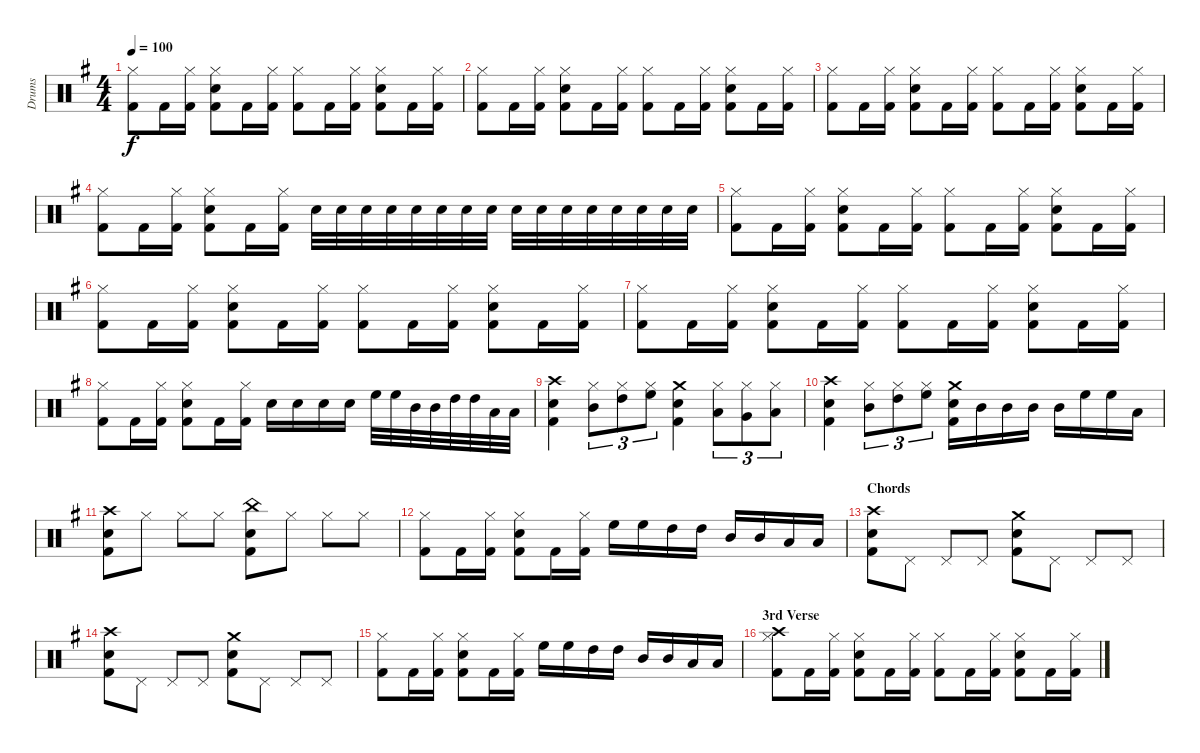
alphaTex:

\track ("Drums" "Drums") {instrument percussion}
\staff {score}
\articulation defaults
\ts (4 4)
\tempo 100
\clef neutral
\ks eminor
("Hi-Hat (closed)" "Kick (hit) 2").8{dy f} "Kick (hit) 2".16 ("Hi-Hat (closed)" "Kick (hit) 2").16 ("Hi-Hat (closed)" "Kick (hit) 2" "Snare (hit) 2").8 "Kick (hit) 2".16 ("Hi-Hat (closed)" "Kick (hit) 2").16 ("Hi-Hat (closed)" "Kick (hit) 2").8 "Kick (hit) 2".16 ("Hi-Hat (closed)" "Kick (hit) 2").16 ("Hi-Hat (closed)" "Kick (hit) 2" "Snare (hit) 2").8 "Kick (hit) 2".16 ("Hi-Hat (closed)" "Kick (hit) 2").16 |
("Hi-Hat (closed)" "Kick (hit) 2").8 "Kick (hit) 2".16 ("Hi-Hat (closed)" "Kick (hit) 2").16 ("Hi-Hat (closed)" "Kick (hit) 2" "Snare (hit) 2").8 "Kick (hit) 2".16 ("Hi-Hat (closed)" "Kick (hit) 2").16 ("Hi-Hat (closed)" "Kick (hit) 2").8 "Kick (hit) 2".16 ("Hi-Hat (closed)" "Kick (hit) 2").16 ("Hi-Hat (closed)" "Kick (hit) 2" "Snare (hit) 2").8 "Kick (hit) 2".16 ("Hi-Hat (closed)" "Kick (hit) 2").16 |
("Hi-Hat (closed)" "Kick (hit) 2").8 "Kick (hit) 2".16 ("Hi-Hat (closed)" "Kick (hit) 2").16 ("Hi-Hat (closed)" "Kick (hit) 2" "Snare (hit) 2").8 "Kick (hit) 2".16 ("Hi-Hat (closed)" "Kick (hit) 2").16 ("Hi-Hat (closed)" "Kick (hit) 2").8 "Kick (hit) 2".16 ("Hi-Hat (closed)" "Kick (hit) 2").16 ("Hi-Hat (closed)" "Kick (hit) 2" "Snare (hit) 2").8 "Kick (hit) 2".16 ("Hi-Hat (closed)" "Kick (hit) 2").16 |
("Hi-Hat (closed)" "Kick (hit) 2").8 "Kick (hit) 2".16 ("Hi-Hat (closed)" "Kick (hit) 2").16 ("Hi-Hat (closed)" "Kick (hit) 2" "Snare (hit) 2").8 "Kick (hit) 2".16 ("Hi-Hat (closed)" "Kick (hit) 2").16 "Snare (hit) 2".32 "Snare (hit) 2".32 "Snare (hit) 2".32 "Snare (hit) 2".32 "Snare (hit) 2".32 "Snare (hit) 2".32 "Snare (hit) 2".32 "Snare (hit) 2".32 "Snare (hit) 2".32 "Snare (hit) 2".32 "Snare (hit) 2".32 "Snare (hit) 2".32 "Snare (hit) 2".32 "Snare (hit) 2".32 "Snare (hit) 2".32 "Snare (hit) 2".32 |
("Hi-Hat (closed)" "Kick (hit) 2").8 "Kick (hit) 2".16 ("Hi-Hat (closed)" "Kick (hit) 2").16 ("Hi-Hat (closed)" "Kick (hit) 2" "Snare (hit) 2").8 "Kick (hit) 2".16 ("Hi-Hat (closed)" "Kick (hit) 2").16 ("Hi-Hat (closed)" "Kick (hit) 2").8 "Kick (hit) 2".16 ("Hi-Hat (closed)" "Kick (hit) 2").16 ("Hi-Hat (closed)" "Kick (hit) 2" "Snare (hit) 2").8 "Kick (hit) 2".16 ("Hi-Hat (closed)" "Kick (hit) 2").16 |
("Hi-Hat (closed)" "Kick (hit) 2").8 "Kick (hit) 2".16 ("Hi-Hat (closed)" "Kick (hit) 2").16 ("Hi-Hat (closed)" "Kick (hit) 2" "Snare (hit) 2").8 "Kick (hit) 2".16 ("Hi-Hat (closed)" "Kick (hit) 2").16 ("Hi-Hat (closed)" "Kick (hit) 2").8 "Kick (hit) 2".16 ("Hi-Hat (closed)" "Kick (hit) 2").16 ("Hi-Hat (closed)" "Kick (hit) 2" "Snare (hit) 2").8 "Kick (hit) 2".16 ("Hi-Hat (closed)" "Kick (hit) 2").16 |
("Hi-Hat (closed)" "Kick (hit) 2").8 "Kick (hit) 2".16 ("Hi-Hat (closed)" "Kick (hit) 2").16 ("Hi-Hat (closed)" "Kick (hit) 2" "Snare (hit) 2").8 "Kick (hit) 2".16 ("Hi-Hat (closed)" "Kick (hit) 2").16 ("Hi-Hat (closed)" "Kick (hit) 2").8 "Kick (hit) 2".16 ("Hi-Hat (closed)" "Kick (hit) 2").16 ("Hi-Hat (closed)" "Kick (hit) 2" "Snare (hit) 2").8 "Kick (hit) 2".16 ("Hi-Hat (closed)" "Kick (hit) 2").16 |
("Hi-Hat (closed)" "Kick (hit) 2").8 "Kick (hit) 2".16 ("Hi-Hat (closed)" "Kick (hit) 2").16 ("Hi-Hat (closed)" "Kick (hit) 2" "Snare (hit) 2").8 "Kick (hit) 2".16 ("Hi-Hat (closed)" "Kick (hit) 2").16 "Snare (hit) 2".16 "Snare (hit) 2".16 "Snare (hit) 2".16 "Snare (hit) 2".16 "High Floor Tom (hit)".32 "High Floor Tom (hit)".32 "Mid Tom (hit)".32 "Mid Tom (hit)".32 "High Tom (hit)".32 "High Tom (hit)".32 "Low Floor Tom (hit)".32 "Low Floor Tom (hit)".32 |
("Crash high (hit)" "Snare (hit) 2" "Kick (hit) 2").4 ("Hi-Hat (closed)" "Mid Tom (hit)").8{tu (3 2)} ("Hi-Hat (closed)" "High Tom (hit)").8{tu (3 2)} ("Hi-Hat (closed)" "High Floor Tom (hit)").8{tu (3 2)} ("Crash medium (hit)" "Snare (hit) 2" "Kick (hit) 2").4 ("Hi-Hat (closed)" "Low Floor Tom (hit)").8{tu (3 2)} ("Hi-Hat (closed)" "Very Low Tom (hit)").8{tu (3 2)} ("Hi-Hat (closed)" "Low Tom (hit)").8{tu (3 2)} |
("Crash high (hit)" "Snare (hit) 2" "Kick (hit) 2").4 ("Hi-Hat (closed)" "Mid Tom (hit)").8{tu (3 2)} ("Hi-Hat (closed)" "High Tom (hit)").8{tu (3 2)} ("Hi-Hat (closed)" "High Floor Tom (hit)").8{tu (3 2)} ("Crash medium (hit)" "Snare (hit) 2" "Kick (hit) 2").16 "Mid Tom (hit)".16 "Mid Tom (hit)".16 "Mid Tom (hit)".16 "Mid Tom (hit)".16 "High Floor Tom (hit)".16 "High Floor Tom (hit)".16 "Low Tom (hit)".16 |
("Crash high (hit)" "Snare (hit) 2" "Kick (hit) 2").8 "Hi-Hat (closed)".8 "Hi-Hat (closed)".8 "Hi-Hat (closed)".8 ("China (hit)" "Snare (hit) 2" "Kick (hit) 2").8 "Hi-Hat (closed)".8 "Hi-Hat (closed)".8 "Hi-Hat (closed)".8 |
("Hi-Hat (closed)" "Kick (hit) 2").8 "Kick (hit) 2".16 ("Hi-Hat (closed)" "Kick (hit) 2").16 ("Hi-Hat (closed)" "Kick (hit) 2" "Snare (hit) 2").8 "Kick (hit) 2".16 ("Hi-Hat (closed)" "Kick (hit) 2").16 "High Floor Tom (hit)".16 "High Floor Tom (hit)".16 "High Tom (hit)".16 "High Tom (hit)".16 "Mid Tom (hit)".16 "Mid Tom (hit)".16 "Low Tom (hit)".16 "Low Tom (hit)".16 |
\section ("" "Chords")
("Crash high (hit)" "Snare (hit) 2" "Kick (hit) 2").8 "Pedal Hi-Hat (hit)".8 "Pedal Hi-Hat (hit)".8 "Pedal Hi-Hat (hit)".8 ("Crash medium (hit)" "Snare (hit) 2" "Kick (hit) 2").8 "Pedal Hi-Hat (hit)".8 "Pedal Hi-Hat (hit)".8 "Pedal Hi-Hat (hit)".8 |
("Crash high (hit)" "Snare (hit) 2" "Kick (hit) 2").8 "Pedal Hi-Hat (hit)".8 "Pedal Hi-Hat (hit)".8 "Pedal Hi-Hat (hit)".8 ("Crash medium (hit)" "Snare (hit) 2" "Kick (hit) 2").8 "Pedal Hi-Hat (hit)".8 "Pedal Hi-Hat (hit)".8 "Pedal Hi-Hat (hit)".8 |
("Hi-Hat (closed)" "Kick (hit) 2").8 "Kick (hit) 2".16 ("Hi-Hat (closed)" "Kick (hit) 2").16 ("Hi-Hat (closed)" "Kick (hit) 2" "Snare (hit) 2").8 "Kick (hit) 2".16 ("Hi-Hat (closed)" "Kick (hit) 2").16 "High Floor Tom (hit)".16 "High Floor Tom (hit)".16 "High Tom (hit)".16 "High Tom (hit)".16 "Mid Tom (hit)".16 "Mid Tom (hit)".16 "Low Tom (hit)".16 "Low Tom (hit)".16 |
\section ("" "3rd Verse")
("Hi-Hat (closed)" "Kick (hit) 2" "Crash high (hit)").8 "Kick (hit) 2".16 ("Hi-Hat (closed)" "Kick (hit) 2").16 ("Hi-Hat (closed)" "Kick (hit) 2" "Snare (hit) 2").8 "Kick (hit) 2".16 ("Hi-Hat (closed)" "Kick (hit) 2").16 ("Hi-Hat (closed)" "Kick (hit) 2").8 "Kick (hit) 2".16 ("Hi-Hat (closed)" "Kick (hit) 2").16 ("Hi-Hat (closed)" "Kick (hit) 2" "Snare (hit) 2").8 "Kick (hit) 2".16 ("Hi-Hat (closed)" "Kick (hit) 2").16
